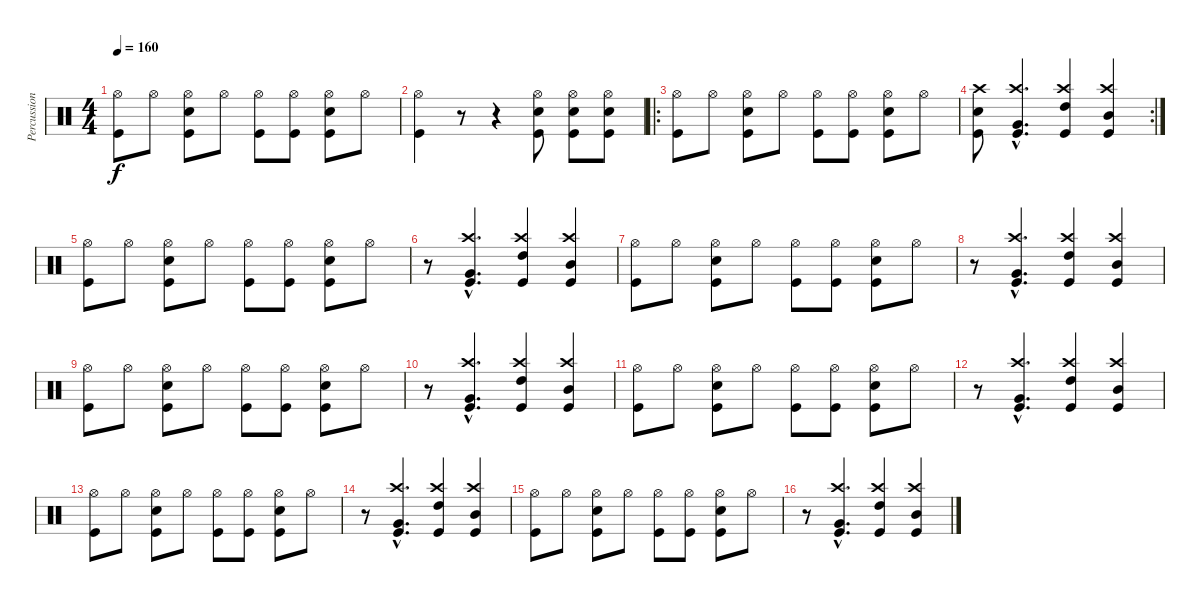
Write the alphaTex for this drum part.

\track ("Percussions" "Percussion") {instrument percussion}
\staff {score}
\articulation defaults
\ts (4 4)
\tempo 160
\clef neutral
\ks c
("Hi-Hat (open)" "Kick (hit)").8{dy f} "Hi-Hat (open)".8 ("Hi-Hat (open)" "Electric Snare (hit)" "Kick (hit)").8 "Hi-Hat (open)".8 ("Hi-Hat (open)" "Kick (hit)").8 ("Hi-Hat (open)" "Kick (hit)").8 ("Hi-Hat (open)" "Electric Snare (hit)" "Kick (hit)").8 "Hi-Hat (open)".8 |
("Hi-Hat (open)" "Kick (hit)").4 r.8 r.4 ("Hi-Hat (open)" "Snare (hit) 2" "Kick (hit)").8 ("Hi-Hat (open)" "Snare (hit) 2" "Kick (hit)").8 ("Hi-Hat (open)" "Snare (hit) 2" "Kick (hit)").8 |
\ro
("Hi-Hat (open)" "Kick (hit)").8 "Hi-Hat (open)".8 ("Hi-Hat (open)" "Electric Snare (hit)" "Kick (hit)").8 "Hi-Hat (open)".8 ("Hi-Hat (open)" "Kick (hit)").8 ("Hi-Hat (open)" "Kick (hit)").8 ("Hi-Hat (open)" "Electric Snare (hit)" "Kick (hit)").8 "Hi-Hat (open)".8 |
\rc 2
("Crash high (hit)" "Electric Snare (hit)" "Kick (hit)").8 ("Crash high (hit)"{hac} "Very Low Tom (hit)"{hac} "Kick (hit)"{hac}).4{d} ("Crash high (hit)" "High Tom (hit)" "Kick (hit)").4 ("Crash high (hit)" "Mid Tom (hit)" "Kick (hit)").4 |
("Hi-Hat (open)" "Kick (hit)").8 "Hi-Hat (open)".8 ("Hi-Hat (open)" "Electric Snare (hit)" "Kick (hit)").8 "Hi-Hat (open)".8 ("Hi-Hat (open)" "Kick (hit)").8 ("Hi-Hat (open)" "Kick (hit)").8 ("Hi-Hat (open)" "Electric Snare (hit)" "Kick (hit)").8 "Hi-Hat (open)".8 |
r.8 ("Crash high (hit)"{hac} "Very Low Tom (hit)"{hac} "Kick (hit)"{hac}).4{d} ("Crash high (hit)" "High Tom (hit)" "Kick (hit)").4 ("Crash high (hit)" "Mid Tom (hit)" "Kick (hit)").4 |
("Hi-Hat (open)" "Kick (hit)").8 "Hi-Hat (open)".8 ("Hi-Hat (open)" "Electric Snare (hit)" "Kick (hit)").8 "Hi-Hat (open)".8 ("Hi-Hat (open)" "Kick (hit)").8 ("Hi-Hat (open)" "Kick (hit)").8 ("Hi-Hat (open)" "Electric Snare (hit)" "Kick (hit)").8 "Hi-Hat (open)".8 |
r.8 ("Crash high (hit)"{hac} "Very Low Tom (hit)"{hac} "Kick (hit)"{hac}).4{d} ("Crash high (hit)" "High Tom (hit)" "Kick (hit)").4 ("Crash high (hit)" "Mid Tom (hit)" "Kick (hit)").4 |
("Hi-Hat (open)" "Kick (hit)").8 "Hi-Hat (open)".8 ("Hi-Hat (open)" "Electric Snare (hit)" "Kick (hit)").8 "Hi-Hat (open)".8 ("Hi-Hat (open)" "Kick (hit)").8 ("Hi-Hat (open)" "Kick (hit)").8 ("Hi-Hat (open)" "Electric Snare (hit)" "Kick (hit)").8 "Hi-Hat (open)".8 |
r.8 ("Crash high (hit)"{hac} "Very Low Tom (hit)"{hac} "Kick (hit)"{hac}).4{d} ("Crash high (hit)" "High Tom (hit)" "Kick (hit)").4 ("Crash high (hit)" "Mid Tom (hit)" "Kick (hit)").4 |
("Hi-Hat (open)" "Kick (hit)").8 "Hi-Hat (open)".8 ("Hi-Hat (open)" "Electric Snare (hit)" "Kick (hit)").8 "Hi-Hat (open)".8 ("Hi-Hat (open)" "Kick (hit)").8 ("Hi-Hat (open)" "Kick (hit)").8 ("Hi-Hat (open)" "Electric Snare (hit)" "Kick (hit)").8 "Hi-Hat (open)".8 |
r.8 ("Crash high (hit)"{hac} "Very Low Tom (hit)"{hac} "Kick (hit)"{hac}).4{d} ("Crash high (hit)" "High Tom (hit)" "Kick (hit)").4 ("Crash high (hit)" "Mid Tom (hit)" "Kick (hit)").4 |
("Hi-Hat (open)" "Kick (hit)").8 "Hi-Hat (open)".8 ("Hi-Hat (open)" "Electric Snare (hit)" "Kick (hit)").8 "Hi-Hat (open)".8 ("Hi-Hat (open)" "Kick (hit)").8 ("Hi-Hat (open)" "Kick (hit)").8 ("Hi-Hat (open)" "Electric Snare (hit)" "Kick (hit)").8 "Hi-Hat (open)".8 |
r.8 ("Crash high (hit)"{hac} "Very Low Tom (hit)"{hac} "Kick (hit)"{hac}).4{d} ("Crash high (hit)" "High Tom (hit)" "Kick (hit)").4 ("Crash high (hit)" "Mid Tom (hit)" "Kick (hit)").4 |
("Hi-Hat (open)" "Kick (hit)").8 "Hi-Hat (open)".8 ("Hi-Hat (open)" "Electric Snare (hit)" "Kick (hit)").8 "Hi-Hat (open)".8 ("Hi-Hat (open)" "Kick (hit)").8 ("Hi-Hat (open)" "Kick (hit)").8 ("Hi-Hat (open)" "Electric Snare (hit)" "Kick (hit)").8 "Hi-Hat (open)".8 |
r.8 ("Crash high (hit)"{hac} "Very Low Tom (hit)"{hac} "Kick (hit)"{hac}).4{d} ("Crash high (hit)" "High Tom (hit)" "Kick (hit)").4 ("Crash high (hit)" "Mid Tom (hit)" "Kick (hit)").4
